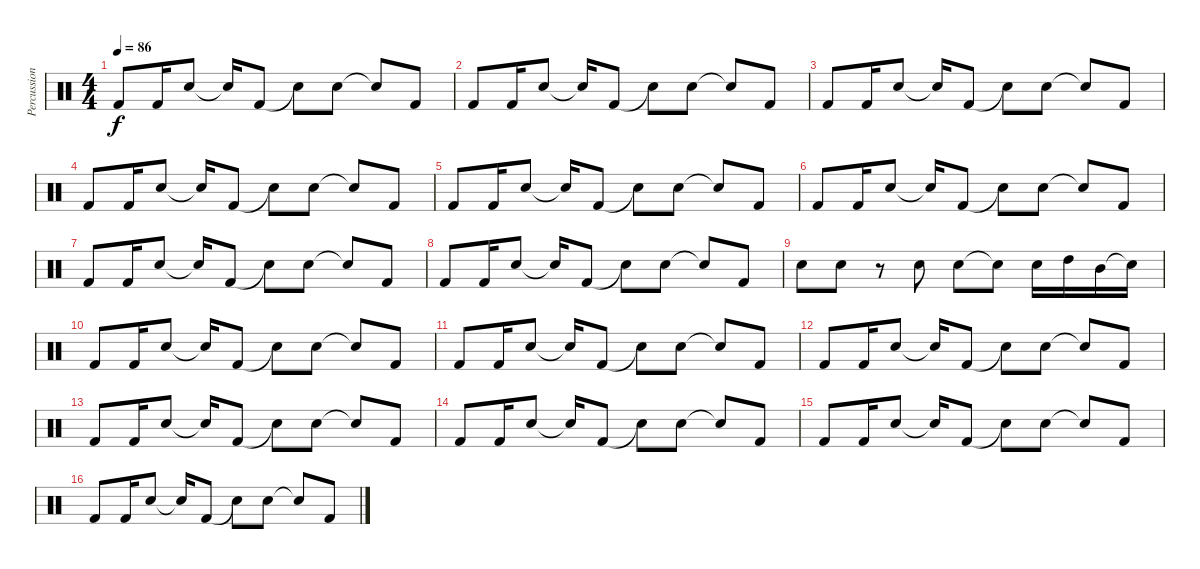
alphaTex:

\track ("Percussion" "Percussion") {instrument percussion}
\staff {score}
\articulation defaults
\ts (4 4)
\tempo 86
\clef neutral
\ks c "Kick (hit) 2".8{dy f} "Kick (hit) 2".16 "Snare (hit) 2".8 "Snare (hit)"{t}.16 "Kick (hit) 2".8 "Snare (hit)"{t}.8 "Snare (hit) 2".8 "Snare (hit)"{t}.8 "Kick (hit) 2".8
|
"Kick (hit) 2".8 "Kick (hit) 2".16 "Snare (hit) 2".8 "Snare (hit)"{t}.16 "Kick (hit) 2".8 "Snare (hit)"{t}.8 "Snare (hit) 2".8 "Snare (hit)"{t}.8 "Kick (hit) 2".8 |
"Kick (hit) 2".8 "Kick (hit) 2".16 "Snare (hit) 2".8 "Snare (hit)"{t}.16 "Kick (hit) 2".8 "Snare (hit)"{t}.8 "Snare (hit) 2".8 "Snare (hit)"{t}.8 "Kick (hit) 2".8 |
"Kick (hit) 2".8 "Kick (hit) 2".16 "Snare (hit) 2".8 "Snare (hit)"{t}.16 "Kick (hit) 2".8 "Snare (hit)"{t}.8 "Snare (hit) 2".8 "Snare (hit)"{t}.8 "Kick (hit) 2".8 |
"Kick (hit) 2".8 "Kick (hit) 2".16 "Snare (hit) 2".8 "Snare (hit)"{t}.16 "Kick (hit) 2".8 "Snare (hit)"{t}.8 "Snare (hit) 2".8 "Snare (hit)"{t}.8 "Kick (hit) 2".8 |
"Kick (hit) 2".8 "Kick (hit) 2".16 "Snare (hit) 2".8 "Snare (hit)"{t}.16 "Kick (hit) 2".8 "Snare (hit)"{t}.8 "Snare (hit) 2".8 "Snare (hit)"{t}.8 "Kick (hit) 2".8 |
"Kick (hit) 2".8 "Kick (hit) 2".16 "Snare (hit) 2".8 "Snare (hit)"{t}.16 "Kick (hit) 2".8 "Snare (hit)"{t}.8 "Snare (hit) 2".8 "Snare (hit)"{t}.8 "Kick (hit) 2".8 |
"Kick (hit) 2".8 "Kick (hit) 2".16 "Snare (hit) 2".8 "Snare (hit)"{t}.16 "Kick (hit) 2".8 "Snare (hit)"{t}.8 "Snare (hit) 2".8 "Snare (hit)"{t}.8 "Kick (hit) 2".8 |
"Snare (hit) 2".8 "Snare (hit) 2".8 r.8 "Snare (hit) 2".8 "Snare (hit) 2".8 "Snare (hit)"{t}.8 "Snare (hit) 2".16 "High Tom (hit)".16 "Mid Tom (hit)".16 "Snare (hit)"{t}.16 |
"Kick (hit) 2".8 "Kick (hit) 2".16 "Snare (hit) 2".8 "Snare (hit)"{t}.16 "Kick (hit) 2".8 "Snare (hit)"{t}.8 "Snare (hit) 2".8 "Snare (hit)"{t}.8 "Kick (hit) 2".8 |
"Kick (hit) 2".8 "Kick (hit) 2".16 "Snare (hit) 2".8 "Snare (hit)"{t}.16 "Kick (hit) 2".8 "Snare (hit)"{t}.8 "Snare (hit) 2".8 "Snare (hit)"{t}.8 "Kick (hit) 2".8 |
"Kick (hit) 2".8 "Kick (hit) 2".16 "Snare (hit) 2".8 "Snare (hit)"{t}.16 "Kick (hit) 2".8 "Snare (hit)"{t}.8 "Snare (hit) 2".8 "Snare (hit)"{t}.8 "Kick (hit) 2".8 |
"Kick (hit) 2".8 "Kick (hit) 2".16 "Snare (hit) 2".8 "Snare (hit)"{t}.16 "Kick (hit) 2".8 "Snare (hit)"{t}.8 "Snare (hit) 2".8 "Snare (hit)"{t}.8 "Kick (hit) 2".8 |
"Kick (hit) 2".8 "Kick (hit) 2".16 "Snare (hit) 2".8 "Snare (hit)"{t}.16 "Kick (hit) 2".8 "Snare (hit)"{t}.8 "Snare (hit) 2".8 "Snare (hit)"{t}.8 "Kick (hit) 2".8 |
"Kick (hit) 2".8 "Kick (hit) 2".16 "Snare (hit) 2".8 "Snare (hit)"{t}.16 "Kick (hit) 2".8 "Snare (hit)"{t}.8 "Snare (hit) 2".8 "Snare (hit)"{t}.8 "Kick (hit) 2".8 |
"Kick (hit) 2".8 "Kick (hit) 2".16 "Snare (hit) 2".8 "Snare (hit)"{t}.16 "Kick (hit) 2".8 "Snare (hit)"{t}.8 "Snare (hit) 2".8 "Snare (hit)"{t}.8 "Kick (hit) 2".8
